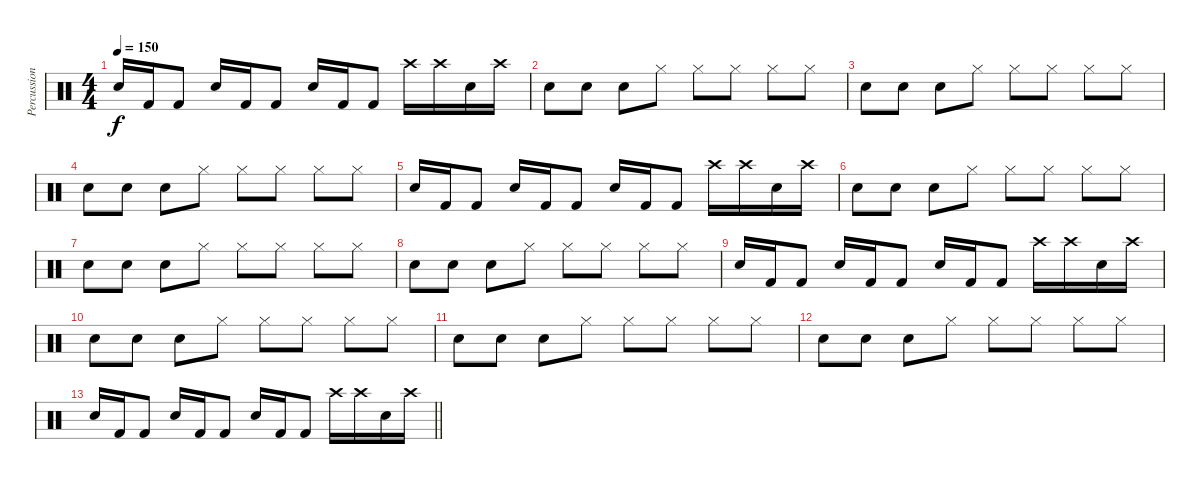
\track ("Percussion" "Percussion") {instrument percussion}
\staff {score}
\articulation defaults
\ts (4 4)
\tempo 150
\clef neutral
\ks c "Electric Snare (hit)".16{dy f} "Kick (hit) 2".16 "Kick (hit) 2".8 "Electric Snare (hit)".16 "Kick (hit) 2".16 "Kick (hit) 2".8 "Electric Snare (hit)".16 "Kick (hit) 2".16 "Kick (hit) 2".8 "Crash high (hit)".16 "Crash high (hit)".16 "Snare (hit) 2".16 "Crash high (hit)".16
|
"Electric Snare (hit)".8 "Electric Snare (hit)".8 "Electric Snare (hit)".8 "Hi-Hat (closed)".8 "Hi-Hat (closed)".8 "Hi-Hat (closed)".8 "Hi-Hat (closed)".8 "Hi-Hat (closed)".8 |
"Electric Snare (hit)".8 "Electric Snare (hit)".8 "Electric Snare (hit)".8 "Hi-Hat (closed)".8 "Hi-Hat (closed)".8 "Hi-Hat (closed)".8 "Hi-Hat (closed)".8 "Hi-Hat (closed)".8 |
"Electric Snare (hit)".8 "Electric Snare (hit)".8 "Electric Snare (hit)".8 "Hi-Hat (closed)".8 "Hi-Hat (closed)".8 "Hi-Hat (closed)".8 "Hi-Hat (closed)".8 "Hi-Hat (closed)".8 |
"Electric Snare (hit)".16 "Kick (hit) 2".16 "Kick (hit) 2".8 "Electric Snare (hit)".16 "Kick (hit) 2".16 "Kick (hit) 2".8 "Electric Snare (hit)".16 "Kick (hit) 2".16 "Kick (hit) 2".8 "Crash high (hit)".16 "Crash high (hit)".16 "Snare (hit) 2".16 "Crash high (hit)".16 |
"Electric Snare (hit)".8 "Electric Snare (hit)".8 "Electric Snare (hit)".8 "Hi-Hat (closed)".8 "Hi-Hat (closed)".8 "Hi-Hat (closed)".8 "Hi-Hat (closed)".8 "Hi-Hat (closed)".8 |
"Electric Snare (hit)".8 "Electric Snare (hit)".8 "Electric Snare (hit)".8 "Hi-Hat (closed)".8 "Hi-Hat (closed)".8 "Hi-Hat (closed)".8 "Hi-Hat (closed)".8 "Hi-Hat (closed)".8 |
"Electric Snare (hit)".8 "Electric Snare (hit)".8 "Electric Snare (hit)".8 "Hi-Hat (closed)".8 "Hi-Hat (closed)".8 "Hi-Hat (closed)".8 "Hi-Hat (closed)".8 "Hi-Hat (closed)".8 |
"Electric Snare (hit)".16 "Kick (hit) 2".16 "Kick (hit) 2".8 "Electric Snare (hit)".16 "Kick (hit) 2".16 "Kick (hit) 2".8 "Electric Snare (hit)".16 "Kick (hit) 2".16 "Kick (hit) 2".8 "Crash high (hit)".16 "Crash high (hit)".16 "Snare (hit) 2".16 "Crash high (hit)".16 |
"Electric Snare (hit)".8 "Electric Snare (hit)".8 "Electric Snare (hit)".8 "Hi-Hat (closed)".8 "Hi-Hat (closed)".8 "Hi-Hat (closed)".8 "Hi-Hat (closed)".8 "Hi-Hat (closed)".8 |
"Electric Snare (hit)".8 "Electric Snare (hit)".8 "Electric Snare (hit)".8 "Hi-Hat (closed)".8 "Hi-Hat (closed)".8 "Hi-Hat (closed)".8 "Hi-Hat (closed)".8 "Hi-Hat (closed)".8 |
"Electric Snare (hit)".8 "Electric Snare (hit)".8 "Electric Snare (hit)".8 "Hi-Hat (closed)".8 "Hi-Hat (closed)".8 "Hi-Hat (closed)".8 "Hi-Hat (closed)".8 "Hi-Hat (closed)".8 |
\barLineRight lightlight "Electric Snare (hit)".16 "Kick (hit) 2".16 "Kick (hit) 2".8 "Electric Snare (hit)".16 "Kick (hit) 2".16 "Kick (hit) 2".8 "Electric Snare (hit)".16 "Kick (hit) 2".16 "Kick (hit) 2".8 "Crash high (hit)".16 "Crash high (hit)".16 "Snare (hit) 2".16 "Crash high (hit)".16
